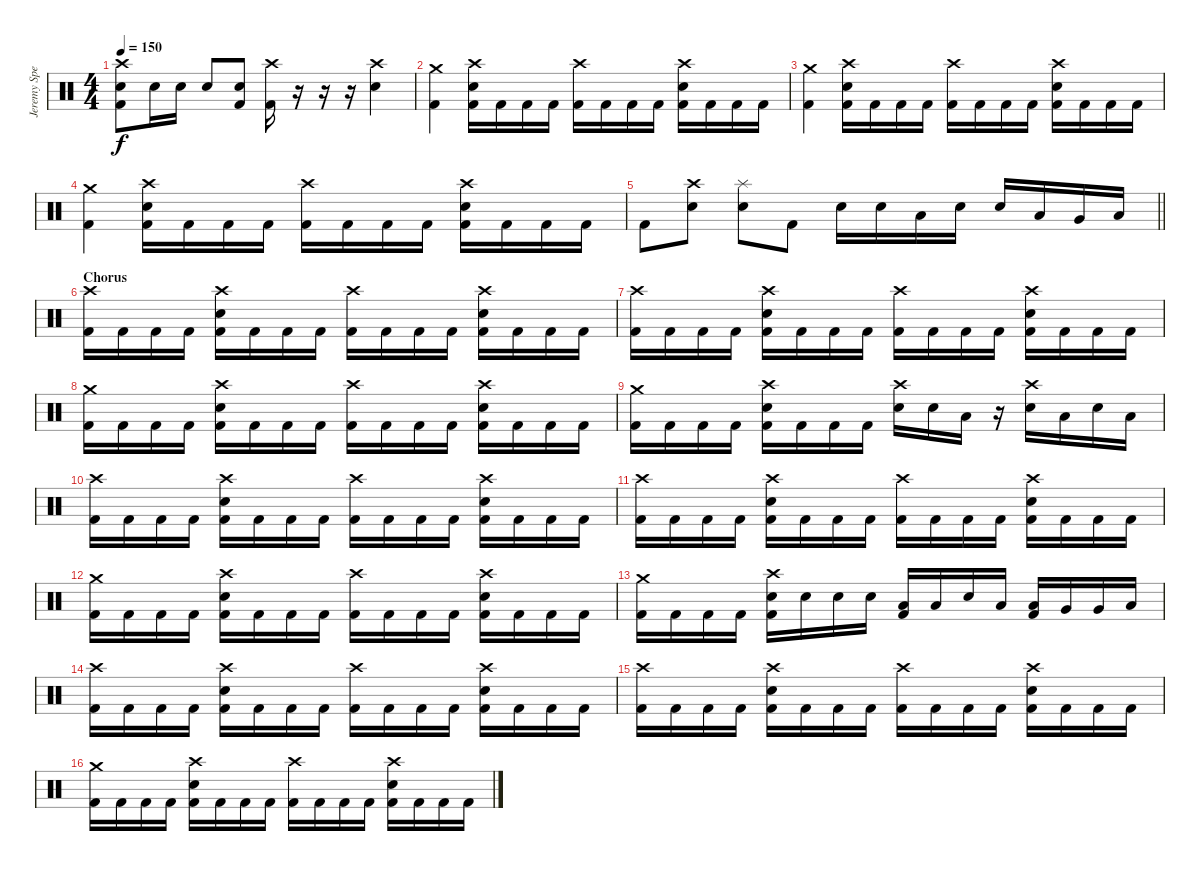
\track ("Jeremy Spencer – Drums" "Jeremy Spe") {instrument percussion}
\staff {score}
\articulation defaults
\ts (4 4)
\tempo 150
\clef neutral
\ks c
("Crash high (hit)" "Snare (hit) 2" "Kick (hit) 2").8{dy f} "Snare (hit) 2".16 "Snare (hit) 2".16 "Snare (hit) 2".8 ("Snare (hit) 2" "Kick (hit) 2").8 ("Crash high (hit)" "Kick (hit) 2").16 r.16 r.16 r.16 ("Crash high (hit)" "Snare (hit) 2").4 |
("Crash medium (hit)" "Kick (hit) 2").4 ("Crash high (hit)" "Snare (hit) 2" "Kick (hit) 2").16 "Kick (hit) 2".16 "Kick (hit) 2".16 "Kick (hit) 2".16 ("Crash high (hit)" "Kick (hit) 2").16 "Kick (hit) 2".16 "Kick (hit) 2".16 "Kick (hit) 2".16 ("Crash high (hit)" "Snare (hit) 2" "Kick (hit) 2").16 "Kick (hit) 2".16 "Kick (hit) 2".16 "Kick (hit) 2".16 |
("Crash medium (hit)" "Kick (hit) 2").4 ("Crash high (hit)" "Snare (hit) 2" "Kick (hit) 2").16 "Kick (hit) 2".16 "Kick (hit) 2".16 "Kick (hit) 2".16 ("Crash high (hit)" "Kick (hit) 2").16 "Kick (hit) 2".16 "Kick (hit) 2".16 "Kick (hit) 2".16 ("Crash high (hit)" "Snare (hit) 2" "Kick (hit) 2").16 "Kick (hit) 2".16 "Kick (hit) 2".16 "Kick (hit) 2".16 |
("Crash medium (hit)" "Kick (hit) 2").4 ("Crash high (hit)" "Snare (hit) 2" "Kick (hit) 2").16 "Kick (hit) 2".16 "Kick (hit) 2".16 "Kick (hit) 2".16 ("Crash high (hit)" "Kick (hit) 2").16 "Kick (hit) 2".16 "Kick (hit) 2".16 "Kick (hit) 2".16 ("Crash high (hit)" "Snare (hit) 2" "Kick (hit) 2").16 "Kick (hit) 2".16 "Kick (hit) 2".16 "Kick (hit) 2".16 |
\barLineRight lightlight "Kick (hit) 2".8
("Crash high (hit)" "Snare (hit) 2").8 ("Splash (hit)" "Snare (hit) 2").8 "Kick (hit) 2".8 "Snare (hit) 2".16 "Snare (hit) 2".16 "Low Tom (hit)".16 "Snare (hit) 2".16 "Snare (hit) 2".16 "Low Tom (hit)".16 "Very Low Tom (hit)".16 "Low Floor Tom (hit)".16 |
\section ("" "Chorus")
("Crash high (hit)" "Kick (hit) 2").16 "Kick (hit) 2".16 "Kick (hit) 2".16 "Kick (hit) 2".16 ("Crash high (hit)" "Snare (hit) 2" "Kick (hit) 2").16 "Kick (hit) 2".16 "Kick (hit) 2".16 "Kick (hit) 2".16 ("Crash high (hit)" "Kick (hit) 2").16 "Kick (hit) 2".16 "Kick (hit) 2".16 "Kick (hit) 2".16 ("Crash high (hit)" "Snare (hit) 2" "Kick (hit) 2").16 "Kick (hit) 2".16 "Kick (hit) 2".16 "Kick (hit) 2".16 |
("Crash high (hit)" "Kick (hit) 2").16 "Kick (hit) 2".16 "Kick (hit) 2".16 "Kick (hit) 2".16 ("Crash high (hit)" "Snare (hit) 2" "Kick (hit) 2").16 "Kick (hit) 2".16 "Kick (hit) 2".16 "Kick (hit) 2".16 ("Crash high (hit)" "Kick (hit) 2").16 "Kick (hit) 2".16 "Kick (hit) 2".16 "Kick (hit) 2".16 ("Crash high (hit)" "Snare (hit) 2" "Kick (hit) 2").16 "Kick (hit) 2".16 "Kick (hit) 2".16 "Kick (hit) 2".16 |
("Crash medium (hit)" "Kick (hit) 2").16 "Kick (hit) 2".16 "Kick (hit) 2".16 "Kick (hit) 2".16 ("Crash high (hit)" "Snare (hit) 2" "Kick (hit) 2").16 "Kick (hit) 2".16 "Kick (hit) 2".16 "Kick (hit) 2".16 ("Crash high (hit)" "Kick (hit) 2").16 "Kick (hit) 2".16 "Kick (hit) 2".16 "Kick (hit) 2".16 ("Crash high (hit)" "Snare (hit) 2" "Kick (hit) 2").16 "Kick (hit) 2".16 "Kick (hit) 2".16 "Kick (hit) 2".16 |
("Crash medium (hit)" "Kick (hit) 2").16 "Kick (hit) 2".16 "Kick (hit) 2".16 "Kick (hit) 2".16 ("Crash high (hit)" "Snare (hit) 2" "Kick (hit) 2").16 "Kick (hit) 2".16 "Kick (hit) 2".16 "Kick (hit) 2".16 ("Crash high (hit)" "Snare (hit) 2").16 "Snare (hit) 2".16 "Low Tom (hit)".16 r.16 ("Crash high (hit)" "Snare (hit) 2").16 "Low Tom (hit)".16 "Snare (hit) 2".16 "Low Floor Tom (hit)".16 |
("Crash high (hit)" "Kick (hit) 2").16 "Kick (hit) 2".16 "Kick (hit) 2".16 "Kick (hit) 2".16 ("Crash high (hit)" "Snare (hit) 2" "Kick (hit) 2").16 "Kick (hit) 2".16 "Kick (hit) 2".16 "Kick (hit) 2".16 ("Crash high (hit)" "Kick (hit) 2").16 "Kick (hit) 2".16 "Kick (hit) 2".16 "Kick (hit) 2".16 ("Crash high (hit)" "Snare (hit) 2" "Kick (hit) 2").16 "Kick (hit) 2".16 "Kick (hit) 2".16 "Kick (hit) 2".16 |
("Crash high (hit)" "Kick (hit) 2").16 "Kick (hit) 2".16 "Kick (hit) 2".16 "Kick (hit) 2".16 ("Crash high (hit)" "Snare (hit) 2" "Kick (hit) 2").16 "Kick (hit) 2".16 "Kick (hit) 2".16 "Kick (hit) 2".16 ("Crash high (hit)" "Kick (hit) 2").16 "Kick (hit) 2".16 "Kick (hit) 2".16 "Kick (hit) 2".16 ("Crash high (hit)" "Snare (hit) 2" "Kick (hit) 2").16 "Kick (hit) 2".16 "Kick (hit) 2".16 "Kick (hit) 2".16 |
("Crash medium (hit)" "Kick (hit) 2").16 "Kick (hit) 2".16 "Kick (hit) 2".16 "Kick (hit) 2".16 ("Crash high (hit)" "Snare (hit) 2" "Kick (hit) 2").16 "Kick (hit) 2".16 "Kick (hit) 2".16 "Kick (hit) 2".16 ("Crash high (hit)" "Kick (hit) 2").16 "Kick (hit) 2".16 "Kick (hit) 2".16 "Kick (hit) 2".16 ("Crash high (hit)" "Snare (hit) 2" "Kick (hit) 2").16 "Kick (hit) 2".16 "Kick (hit) 2".16 "Kick (hit) 2".16 |
("Crash medium (hit)" "Kick (hit) 2").16 "Kick (hit) 2".16 "Kick (hit) 2".16 "Kick (hit) 2".16 ("Crash high (hit)" "Snare (hit) 2" "Kick (hit) 2").16 "Snare (hit) 2".16 "Snare (hit) 2".16 "Snare (hit) 2".16 ("Low Tom (hit)" "Kick (hit) 2").16 "Low Tom (hit)".16 "Snare (hit) 2".16 "Low Tom (hit)".16 ("Low Tom (hit)" "Kick (hit) 2").16 "Very Low Tom (hit)".16 "Very Low Tom (hit)".16 "Low Floor Tom (hit)".16 |
("Crash high (hit)" "Kick (hit) 2").16 "Kick (hit) 2".16 "Kick (hit) 2".16 "Kick (hit) 2".16 ("Crash high (hit)" "Snare (hit) 2" "Kick (hit) 2").16 "Kick (hit) 2".16 "Kick (hit) 2".16 "Kick (hit) 2".16 ("Crash high (hit)" "Kick (hit) 2").16 "Kick (hit) 2".16 "Kick (hit) 2".16 "Kick (hit) 2".16 ("Crash high (hit)" "Snare (hit) 2" "Kick (hit) 2").16 "Kick (hit) 2".16 "Kick (hit) 2".16 "Kick (hit) 2".16 |
("Crash high (hit)" "Kick (hit) 2").16 "Kick (hit) 2".16 "Kick (hit) 2".16 "Kick (hit) 2".16 ("Crash high (hit)" "Snare (hit) 2" "Kick (hit) 2").16 "Kick (hit) 2".16 "Kick (hit) 2".16 "Kick (hit) 2".16 ("Crash high (hit)" "Kick (hit) 2").16 "Kick (hit) 2".16 "Kick (hit) 2".16 "Kick (hit) 2".16 ("Crash high (hit)" "Snare (hit) 2" "Kick (hit) 2").16 "Kick (hit) 2".16 "Kick (hit) 2".16 "Kick (hit) 2".16 |
("Crash medium (hit)" "Kick (hit) 2").16 "Kick (hit) 2".16 "Kick (hit) 2".16 "Kick (hit) 2".16 ("Crash high (hit)" "Snare (hit) 2" "Kick (hit) 2").16 "Kick (hit) 2".16 "Kick (hit) 2".16 "Kick (hit) 2".16 ("Crash high (hit)" "Kick (hit) 2").16 "Kick (hit) 2".16 "Kick (hit) 2".16 "Kick (hit) 2".16 ("Crash high (hit)" "Snare (hit) 2" "Kick (hit) 2").16 "Kick (hit) 2".16 "Kick (hit) 2".16 "Kick (hit) 2".16
